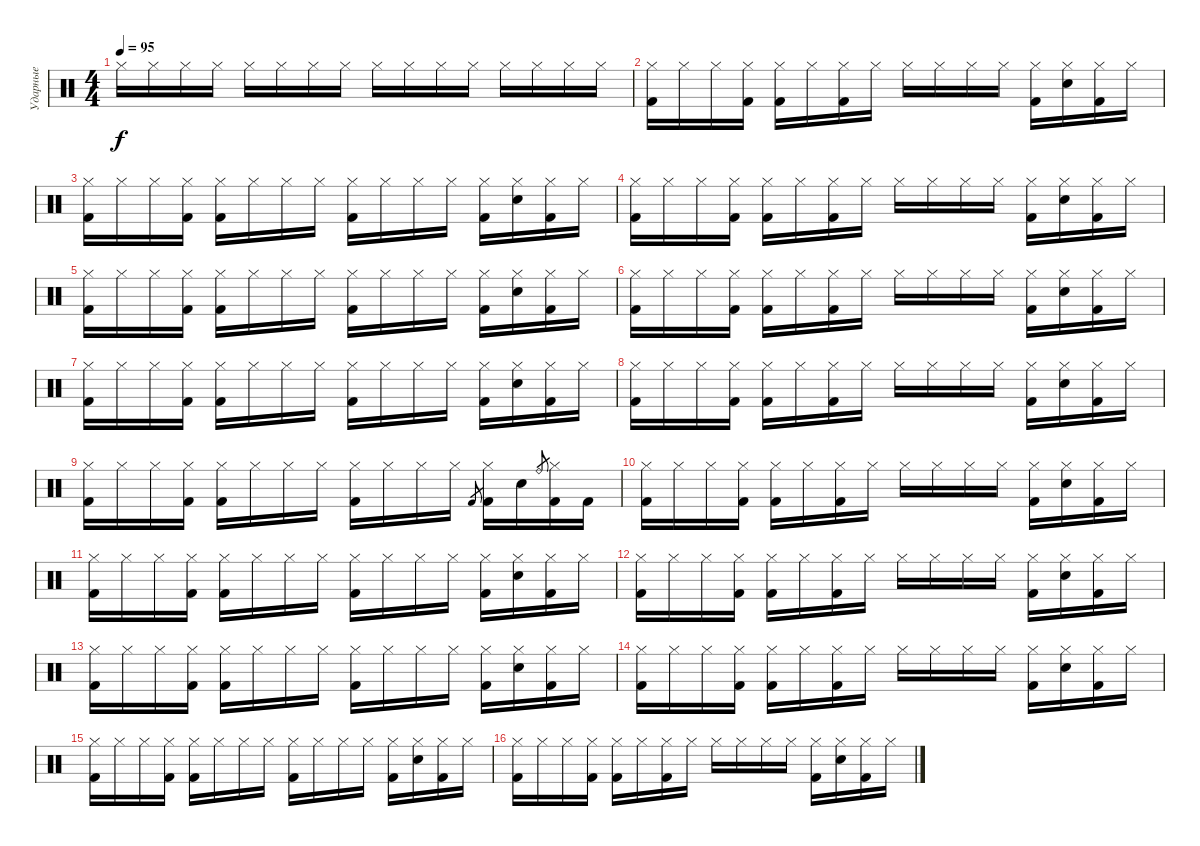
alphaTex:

\track ("Ударные" "Ударные") {instrument percussion}
\staff {score}
\articulation defaults
\ts (4 4)
\tempo 95
\clef neutral
\ks c "Hi-Hat (closed)".16{dy f} "Hi-Hat (closed)".16 "Hi-Hat (closed)".16 "Hi-Hat (closed)".16 "Hi-Hat (closed)".16 "Hi-Hat (closed)".16 "Hi-Hat (closed)".16 "Hi-Hat (closed)".16 "Hi-Hat (closed)".16 "Hi-Hat (closed)".16 "Hi-Hat (closed)".16 "Hi-Hat (closed)".16 "Hi-Hat (closed)".16 "Hi-Hat (closed)".16 "Hi-Hat (closed)".16 "Hi-Hat (closed)".16
|
("Hi-Hat (closed)" "Kick (hit) 2").16 "Hi-Hat (closed)".16 "Hi-Hat (closed)".16 ("Hi-Hat (closed)" "Kick (hit) 2").16 ("Hi-Hat (closed)" "Kick (hit) 2").16 "Hi-Hat (closed)".16 ("Hi-Hat (closed)" "Kick (hit) 2").16 "Hi-Hat (closed)".16 "Hi-Hat (closed)".16 "Hi-Hat (closed)".16 "Hi-Hat (closed)".16 "Hi-Hat (closed)".16 ("Hi-Hat (closed)" "Kick (hit) 2").16 ("Hi-Hat (closed)" "Snare (hit)").16 ("Hi-Hat (closed)" "Kick (hit) 2").16 "Hi-Hat (closed)".16 |
("Hi-Hat (closed)" "Kick (hit) 2").16 "Hi-Hat (closed)".16 "Hi-Hat (closed)".16 ("Hi-Hat (closed)" "Kick (hit) 2").16 ("Hi-Hat (closed)" "Kick (hit) 2").16 "Hi-Hat (closed)".16 "Hi-Hat (closed)".16 "Hi-Hat (closed)".16 ("Hi-Hat (closed)" "Kick (hit) 2").16 "Hi-Hat (closed)".16 "Hi-Hat (closed)".16 "Hi-Hat (closed)".16 ("Hi-Hat (closed)" "Kick (hit) 2").16 ("Hi-Hat (closed)" "Snare (hit)").16 ("Hi-Hat (closed)" "Kick (hit) 2").16 "Hi-Hat (closed)".16 |
("Hi-Hat (closed)" "Kick (hit) 2").16 "Hi-Hat (closed)".16 "Hi-Hat (closed)".16 ("Hi-Hat (closed)" "Kick (hit) 2").16 ("Hi-Hat (closed)" "Kick (hit) 2").16 "Hi-Hat (closed)".16 ("Hi-Hat (closed)" "Kick (hit) 2").16 "Hi-Hat (closed)".16 "Hi-Hat (closed)".16 "Hi-Hat (closed)".16 "Hi-Hat (closed)".16 "Hi-Hat (closed)".16 ("Hi-Hat (closed)" "Kick (hit) 2").16 ("Hi-Hat (closed)" "Snare (hit)").16 ("Hi-Hat (closed)" "Kick (hit) 2").16 "Hi-Hat (closed)".16 |
("Hi-Hat (closed)" "Kick (hit) 2").16 "Hi-Hat (closed)".16 "Hi-Hat (closed)".16 ("Hi-Hat (closed)" "Kick (hit) 2").16 ("Hi-Hat (closed)" "Kick (hit) 2").16 "Hi-Hat (closed)".16 "Hi-Hat (closed)".16 "Hi-Hat (closed)".16 ("Hi-Hat (closed)" "Kick (hit) 2").16 "Hi-Hat (closed)".16 "Hi-Hat (closed)".16 "Hi-Hat (closed)".16 ("Hi-Hat (closed)" "Kick (hit) 2").16 ("Hi-Hat (closed)" "Snare (hit)").16 ("Hi-Hat (closed)" "Kick (hit) 2").16 "Hi-Hat (closed)".16 |
("Hi-Hat (closed)" "Kick (hit) 2").16 "Hi-Hat (closed)".16 "Hi-Hat (closed)".16 ("Hi-Hat (closed)" "Kick (hit) 2").16 ("Hi-Hat (closed)" "Kick (hit) 2").16 "Hi-Hat (closed)".16 ("Hi-Hat (closed)" "Kick (hit) 2").16 "Hi-Hat (closed)".16 "Hi-Hat (closed)".16 "Hi-Hat (closed)".16 "Hi-Hat (closed)".16 "Hi-Hat (closed)".16 ("Hi-Hat (closed)" "Kick (hit) 2").16 ("Hi-Hat (closed)" "Snare (hit)").16 ("Hi-Hat (closed)" "Kick (hit) 2").16 "Hi-Hat (closed)".16 |
("Hi-Hat (closed)" "Kick (hit) 2").16 "Hi-Hat (closed)".16 "Hi-Hat (closed)".16 ("Hi-Hat (closed)" "Kick (hit) 2").16 ("Hi-Hat (closed)" "Kick (hit) 2").16 "Hi-Hat (closed)".16 "Hi-Hat (closed)".16 "Hi-Hat (closed)".16 ("Hi-Hat (closed)" "Kick (hit) 2").16 "Hi-Hat (closed)".16 "Hi-Hat (closed)".16 "Hi-Hat (closed)".16 ("Hi-Hat (closed)" "Kick (hit) 2").16 ("Hi-Hat (closed)" "Snare (hit)").16 ("Hi-Hat (closed)" "Kick (hit) 2").16 "Hi-Hat (closed)".16 |
("Hi-Hat (closed)" "Kick (hit) 2").16 "Hi-Hat (closed)".16 "Hi-Hat (closed)".16 ("Hi-Hat (closed)" "Kick (hit) 2").16 ("Hi-Hat (closed)" "Kick (hit) 2").16 "Hi-Hat (closed)".16 ("Hi-Hat (closed)" "Kick (hit) 2").16 "Hi-Hat (closed)".16 "Hi-Hat (closed)".16 "Hi-Hat (closed)".16 "Hi-Hat (closed)".16 "Hi-Hat (closed)".16 ("Hi-Hat (closed)" "Kick (hit) 2").16 ("Hi-Hat (closed)" "Snare (hit)").16 ("Hi-Hat (closed)" "Kick (hit) 2").16 "Hi-Hat (closed)".16 |
("Hi-Hat (closed)" "Kick (hit) 2").16 "Hi-Hat (closed)".16 "Hi-Hat (closed)".16 ("Hi-Hat (closed)" "Kick (hit) 2").16 ("Hi-Hat (closed)" "Kick (hit) 2").16 "Hi-Hat (closed)".16 "Hi-Hat (closed)".16 "Hi-Hat (closed)".16 ("Hi-Hat (closed)" "Kick (hit) 2").16 "Hi-Hat (closed)".16 "Hi-Hat (closed)".16 "Hi-Hat (closed)".16 "Kick (hit) 2".8{gr} ("Hi-Hat (closed)" "Kick (hit) 2").16 "Snare (hit)".16 "Ride (bell)".8{gr} ("Hi-Hat (closed)" "Kick (hit) 2").16 "Kick (hit) 2".16 |
("Hi-Hat (closed)" "Kick (hit) 2").16 "Hi-Hat (closed)".16 "Hi-Hat (closed)".16 ("Hi-Hat (closed)" "Kick (hit) 2").16 ("Hi-Hat (closed)" "Kick (hit) 2").16 "Hi-Hat (closed)".16 ("Hi-Hat (closed)" "Kick (hit) 2").16 "Hi-Hat (closed)".16 "Hi-Hat (closed)".16 "Hi-Hat (closed)".16 "Hi-Hat (closed)".16 "Hi-Hat (closed)".16 ("Hi-Hat (closed)" "Kick (hit) 2").16 ("Hi-Hat (closed)" "Snare (hit)").16 ("Hi-Hat (closed)" "Kick (hit) 2").16 "Hi-Hat (closed)".16 |
("Hi-Hat (closed)" "Kick (hit) 2").16 "Hi-Hat (closed)".16 "Hi-Hat (closed)".16 ("Hi-Hat (closed)" "Kick (hit) 2").16 ("Hi-Hat (closed)" "Kick (hit) 2").16 "Hi-Hat (closed)".16 "Hi-Hat (closed)".16 "Hi-Hat (closed)".16 ("Hi-Hat (closed)" "Kick (hit) 2").16 "Hi-Hat (closed)".16 "Hi-Hat (closed)".16 "Hi-Hat (closed)".16 ("Hi-Hat (closed)" "Kick (hit) 2").16 ("Hi-Hat (closed)" "Snare (hit)").16 ("Hi-Hat (closed)" "Kick (hit) 2").16 "Hi-Hat (closed)".16 |
("Hi-Hat (closed)" "Kick (hit) 2").16 "Hi-Hat (closed)".16 "Hi-Hat (closed)".16 ("Hi-Hat (closed)" "Kick (hit) 2").16 ("Hi-Hat (closed)" "Kick (hit) 2").16 "Hi-Hat (closed)".16 ("Hi-Hat (closed)" "Kick (hit) 2").16 "Hi-Hat (closed)".16 "Hi-Hat (closed)".16 "Hi-Hat (closed)".16 "Hi-Hat (closed)".16 "Hi-Hat (closed)".16 ("Hi-Hat (closed)" "Kick (hit) 2").16 ("Hi-Hat (closed)" "Snare (hit)").16 ("Hi-Hat (closed)" "Kick (hit) 2").16 "Hi-Hat (closed)".16 |
("Hi-Hat (closed)" "Kick (hit) 2").16 "Hi-Hat (closed)".16 "Hi-Hat (closed)".16 ("Hi-Hat (closed)" "Kick (hit) 2").16 ("Hi-Hat (closed)" "Kick (hit) 2").16 "Hi-Hat (closed)".16 "Hi-Hat (closed)".16 "Hi-Hat (closed)".16 ("Hi-Hat (closed)" "Kick (hit) 2").16 "Hi-Hat (closed)".16 "Hi-Hat (closed)".16 "Hi-Hat (closed)".16 ("Hi-Hat (closed)" "Kick (hit) 2").16 ("Hi-Hat (closed)" "Snare (hit)").16 ("Hi-Hat (closed)" "Kick (hit) 2").16 "Hi-Hat (closed)".16 |
("Hi-Hat (closed)" "Kick (hit) 2").16 "Hi-Hat (closed)".16 "Hi-Hat (closed)".16 ("Hi-Hat (closed)" "Kick (hit) 2").16 ("Hi-Hat (closed)" "Kick (hit) 2").16 "Hi-Hat (closed)".16 ("Hi-Hat (closed)" "Kick (hit) 2").16 "Hi-Hat (closed)".16 "Hi-Hat (closed)".16 "Hi-Hat (closed)".16 "Hi-Hat (closed)".16 "Hi-Hat (closed)".16 ("Hi-Hat (closed)" "Kick (hit) 2").16 ("Hi-Hat (closed)" "Snare (hit)").16 ("Hi-Hat (closed)" "Kick (hit) 2").16 "Hi-Hat (closed)".16 |
("Hi-Hat (closed)" "Kick (hit) 2").16 "Hi-Hat (closed)".16 "Hi-Hat (closed)".16 ("Hi-Hat (closed)" "Kick (hit) 2").16 ("Hi-Hat (closed)" "Kick (hit) 2").16 "Hi-Hat (closed)".16 "Hi-Hat (closed)".16 "Hi-Hat (closed)".16 ("Hi-Hat (closed)" "Kick (hit) 2").16 "Hi-Hat (closed)".16 "Hi-Hat (closed)".16 "Hi-Hat (closed)".16 ("Hi-Hat (closed)" "Kick (hit) 2").16 ("Hi-Hat (closed)" "Snare (hit)").16 ("Hi-Hat (closed)" "Kick (hit) 2").16 "Hi-Hat (closed)".16 |
("Hi-Hat (closed)" "Kick (hit) 2").16 "Hi-Hat (closed)".16 "Hi-Hat (closed)".16 ("Hi-Hat (closed)" "Kick (hit) 2").16 ("Hi-Hat (closed)" "Kick (hit) 2").16 "Hi-Hat (closed)".16 ("Hi-Hat (closed)" "Kick (hit) 2").16 "Hi-Hat (closed)".16 "Hi-Hat (closed)".16 "Hi-Hat (closed)".16 "Hi-Hat (closed)".16 "Hi-Hat (closed)".16 ("Hi-Hat (closed)" "Kick (hit) 2").16 ("Hi-Hat (closed)" "Snare (hit)").16 ("Hi-Hat (closed)" "Kick (hit) 2").16 "Hi-Hat (closed)".16
